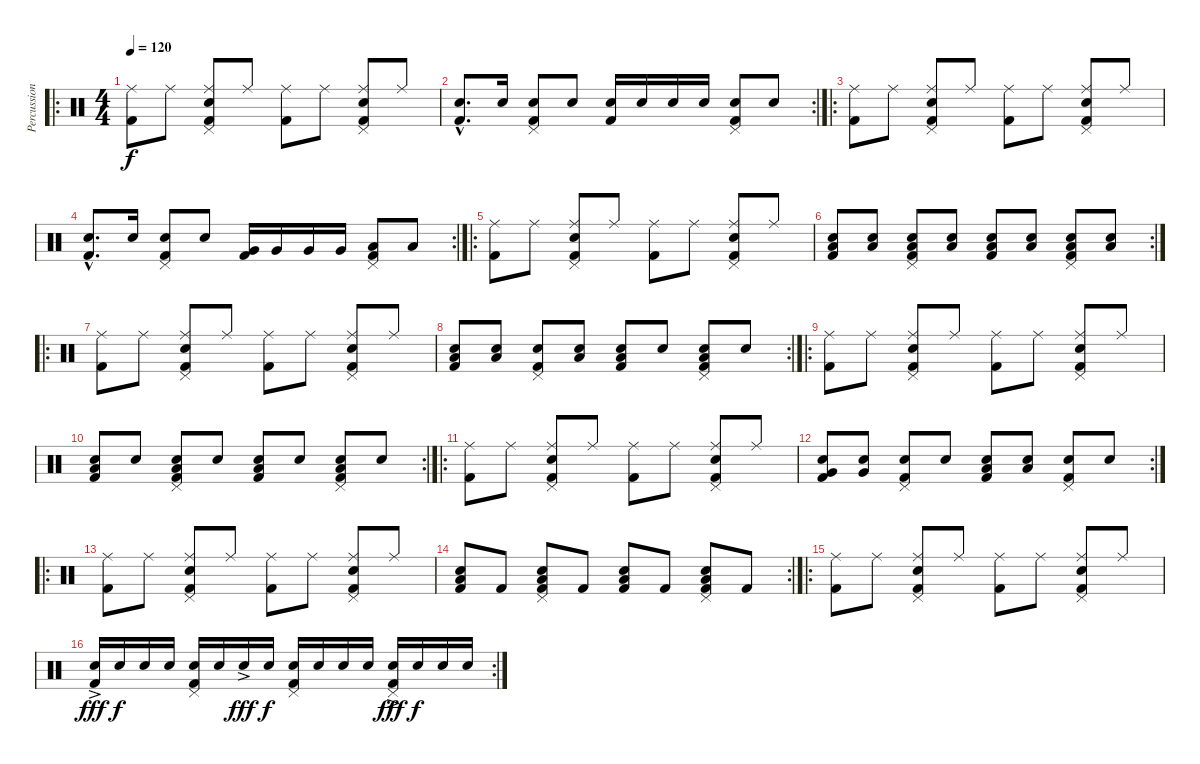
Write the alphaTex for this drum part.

\track ("Percussion" "Percussion") {instrument percussion}
\staff {score}
\articulation defaults
\ro
\ts (4 4)
\tempo 120
\clef neutral
\ks c
("Ride (middle)" "Kick (hit) 2").8{dy f} "Ride (middle)".8 ("Ride (middle)" "Electric Snare (hit)" "Kick (hit) 2" "Pedal Hi-Hat (hit)").8 "Ride (middle)".8 ("Ride (middle)" "Kick (hit) 2").8 "Ride (middle)".8 ("Ride (middle)" "Electric Snare (hit)" "Kick (hit) 2" "Pedal Hi-Hat (hit)").8 "Ride (middle)".8 |
\rc 2
("Electric Snare (hit)"{hac} "Kick (hit) 2"{hac}).8{d} "Electric Snare (hit)".16 ("Electric Snare (hit)" "Kick (hit) 2" "Pedal Hi-Hat (hit)").8 "Electric Snare (hit)".8 ("Electric Snare (hit)" "Kick (hit) 2").16 "Electric Snare (hit)".16 "Electric Snare (hit)".16 "Electric Snare (hit)".16 ("Electric Snare (hit)" "Kick (hit) 2" "Pedal Hi-Hat (hit)").8 "Electric Snare (hit)".8 |
\ro
("Ride (middle)" "Kick (hit) 2").8 "Ride (middle)".8 ("Ride (middle)" "Electric Snare (hit)" "Kick (hit) 2" "Pedal Hi-Hat (hit)").8 "Ride (middle)".8 ("Ride (middle)" "Kick (hit) 2").8 "Ride (middle)".8 ("Ride (middle)" "Electric Snare (hit)" "Kick (hit) 2" "Pedal Hi-Hat (hit)").8 "Ride (middle)".8 |
\rc 2
("Electric Snare (hit)"{hac} "Kick (hit) 2"{hac}).8{d} "Electric Snare (hit)".16 ("Electric Snare (hit)" "Kick (hit) 2" "Pedal Hi-Hat (hit)").8 "Electric Snare (hit)".8 ("Very Low Tom (hit)" "Kick (hit) 2").16 "Very Low Tom (hit)".16 "Very Low Tom (hit)".16 "Very Low Tom (hit)".16 ("Low Floor Tom (hit)" "Kick (hit) 2" "Pedal Hi-Hat (hit)").8 "Low Floor Tom (hit)".8 |
\ro
("Ride (middle)" "Kick (hit) 2").8 "Ride (middle)".8 ("Ride (middle)" "Electric Snare (hit)" "Kick (hit) 2" "Pedal Hi-Hat (hit)").8 "Ride (middle)".8 ("Ride (middle)" "Kick (hit) 2").8 "Ride (middle)".8 ("Ride (middle)" "Electric Snare (hit)" "Kick (hit) 2" "Pedal Hi-Hat (hit)").8 "Ride (middle)".8 |
\rc 2
("Electric Snare (hit)" "Low Floor Tom (hit)" "Kick (hit) 2").8 ("Electric Snare (hit)" "Low Floor Tom (hit)").8 ("Electric Snare (hit)" "Low Floor Tom (hit)" "Kick (hit) 2" "Pedal Hi-Hat (hit)").8 ("Electric Snare (hit)" "Low Floor Tom (hit)").8 ("Electric Snare (hit)" "Low Floor Tom (hit)" "Kick (hit) 2").8 ("Electric Snare (hit)" "Low Floor Tom (hit)").8 ("Electric Snare (hit)" "Low Floor Tom (hit)" "Kick (hit) 2" "Pedal Hi-Hat (hit)").8 ("Electric Snare (hit)" "Low Floor Tom (hit)").8 |
\ro
("Ride (middle)" "Kick (hit) 2").8 "Ride (middle)".8 ("Ride (middle)" "Electric Snare (hit)" "Kick (hit) 2" "Pedal Hi-Hat (hit)").8 "Ride (middle)".8 ("Ride (middle)" "Kick (hit) 2").8 "Ride (middle)".8 ("Ride (middle)" "Electric Snare (hit)" "Kick (hit) 2" "Pedal Hi-Hat (hit)").8 "Ride (middle)".8 |
\rc 2
("Electric Snare (hit)" "Low Floor Tom (hit)" "Kick (hit) 2").8 ("Electric Snare (hit)" "Low Floor Tom (hit)").8 ("Electric Snare (hit)" "Kick (hit) 2" "Pedal Hi-Hat (hit)").8 ("Electric Snare (hit)" "Low Floor Tom (hit)").8 ("Electric Snare (hit)" "Low Floor Tom (hit)" "Kick (hit) 2").8 "Electric Snare (hit)".8 ("Electric Snare (hit)" "Low Floor Tom (hit)" "Kick (hit) 2" "Pedal Hi-Hat (hit)").8 "Electric Snare (hit)".8 |
\ro
("Ride (middle)" "Kick (hit) 2").8 "Ride (middle)".8 ("Ride (middle)" "Electric Snare (hit)" "Kick (hit) 2" "Pedal Hi-Hat (hit)").8 "Ride (middle)".8 ("Ride (middle)" "Kick (hit) 2").8 "Ride (middle)".8 ("Ride (middle)" "Electric Snare (hit)" "Kick (hit) 2" "Pedal Hi-Hat (hit)").8 "Ride (middle)".8 |
\rc 2
("Electric Snare (hit)" "Low Floor Tom (hit)" "Kick (hit) 2").8 "Electric Snare (hit)".8 ("Electric Snare (hit)" "Low Floor Tom (hit)" "Kick (hit) 2" "Pedal Hi-Hat (hit)").8 "Electric Snare (hit)".8 ("Electric Snare (hit)" "Low Floor Tom (hit)" "Kick (hit) 2").8 "Electric Snare (hit)".8 ("Electric Snare (hit)" "Low Floor Tom (hit)" "Kick (hit) 2" "Pedal Hi-Hat (hit)").8 "Electric Snare (hit)".8 |
\ro
("Ride (middle)" "Kick (hit) 2").8 "Ride (middle)".8 ("Ride (middle)" "Electric Snare (hit)" "Kick (hit) 2" "Pedal Hi-Hat (hit)").8 "Ride (middle)".8 ("Ride (middle)" "Kick (hit) 2").8 "Ride (middle)".8 ("Ride (middle)" "Electric Snare (hit)" "Kick (hit) 2" "Pedal Hi-Hat (hit)").8 "Ride (middle)".8 |
\rc 2
("Very Low Tom (hit)" "Electric Snare (hit)" "Kick (hit) 2").8 ("Very Low Tom (hit)" "Electric Snare (hit)").8 ("Electric Snare (hit)" "Kick (hit) 2" "Pedal Hi-Hat (hit)").8 "Electric Snare (hit)".8 ("Electric Snare (hit)" "Low Floor Tom (hit)" "Kick (hit) 2").8 ("Electric Snare (hit)" "Low Floor Tom (hit)").8 ("Electric Snare (hit)" "Kick (hit) 2" "Pedal Hi-Hat (hit)").8 "Electric Snare (hit)".8 |
\ro
("Ride (middle)" "Kick (hit) 2").8 "Ride (middle)".8 ("Ride (middle)" "Electric Snare (hit)" "Kick (hit) 2" "Pedal Hi-Hat (hit)").8 "Ride (middle)".8 ("Ride (middle)" "Kick (hit) 2").8 "Ride (middle)".8 ("Ride (middle)" "Electric Snare (hit)" "Kick (hit) 2" "Pedal Hi-Hat (hit)").8 "Ride (middle)".8 |
\rc 2
("Electric Snare (hit)" "Low Floor Tom (hit)" "Kick (hit) 2").8 "Kick (hit) 2".8 ("Electric Snare (hit)" "Low Floor Tom (hit)" "Kick (hit) 2" "Pedal Hi-Hat (hit)").8 "Kick (hit) 2".8 ("Electric Snare (hit)" "Low Floor Tom (hit)" "Kick (hit) 2").8 "Kick (hit) 2".8 ("Electric Snare (hit)" "Low Floor Tom (hit)" "Kick (hit) 2" "Pedal Hi-Hat (hit)").8 "Kick (hit) 2".8 |
\ro
("Ride (middle)" "Kick (hit) 2").8 "Ride (middle)".8 ("Ride (middle)" "Electric Snare (hit)" "Kick (hit) 2" "Pedal Hi-Hat (hit)").8 "Ride (middle)".8 ("Ride (middle)" "Kick (hit) 2").8 "Ride (middle)".8 ("Ride (middle)" "Electric Snare (hit)" "Kick (hit) 2" "Pedal Hi-Hat (hit)").8 "Ride (middle)".8 |
\rc 2
("Electric Snare (hit)"{ac} "Kick (hit) 2").16{dy fff} "Electric Snare (hit)".16{dy f} "Electric Snare (hit)".16 "Electric Snare (hit)".16 ("Electric Snare (hit)" "Kick (hit) 2" "Pedal Hi-Hat (hit)").16 "Electric Snare (hit)".16 "Electric Snare (hit)"{ac}.16{dy fff} "Electric Snare (hit)".16{dy f} ("Electric Snare (hit)" "Kick (hit) 2" "Pedal Hi-Hat (hit)").16 "Electric Snare (hit)".16 "Electric Snare (hit)".16 "Electric Snare (hit)".16 ("Electric Snare (hit)"{ac} "Kick (hit) 2" "Pedal Hi-Hat (hit)").16{dy fff} "Electric Snare (hit)".16{dy f} "Electric Snare (hit)".16 "Electric Snare (hit)".16
